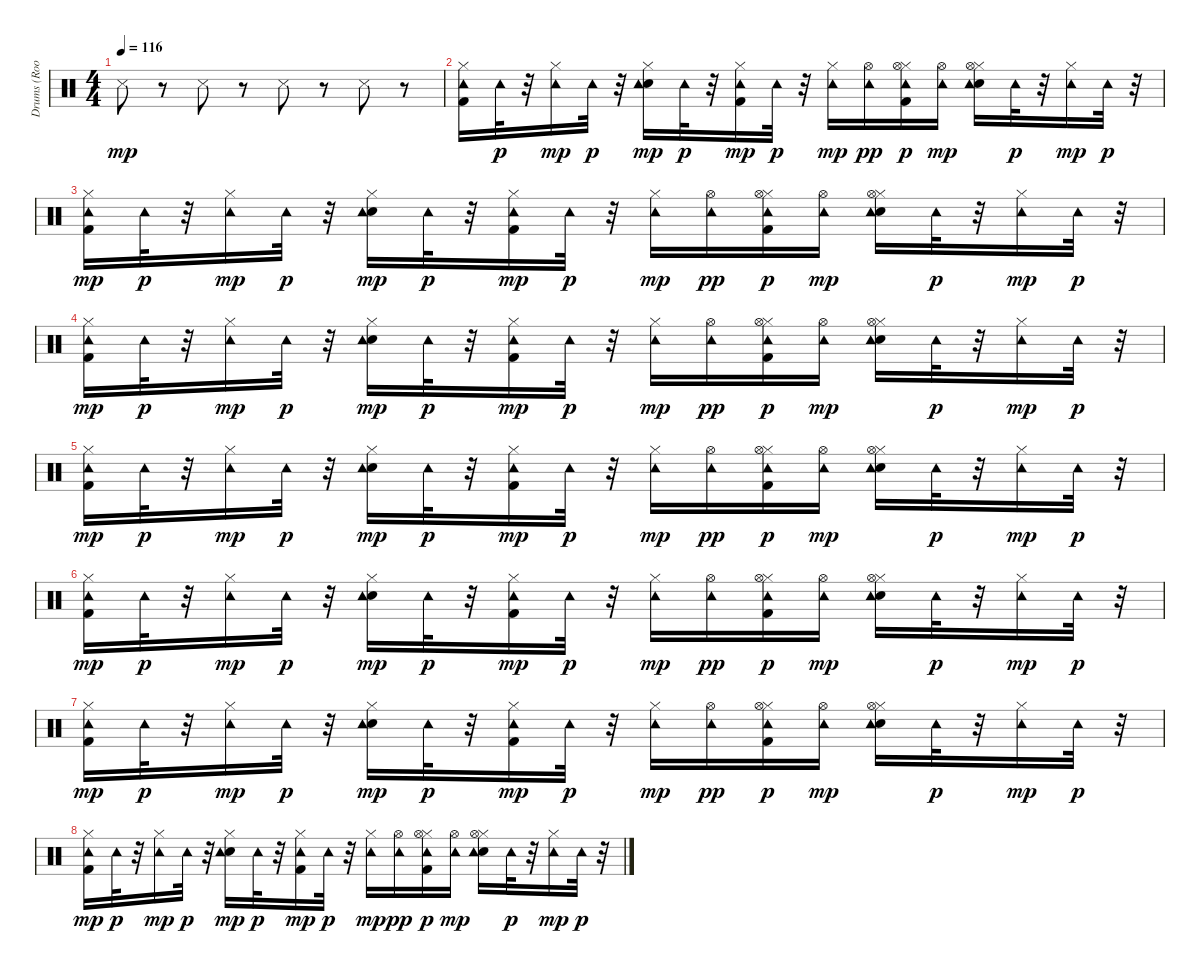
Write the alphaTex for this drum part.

\track ("Drums (Room Kit)    " "Drums (Roo") {instrument percussion}
\staff {score}
\articulation defaults
\ts (4 4)
\tempo 116
\clef neutral
\ks c "Snare (side stick) 3".8{dy mp}
r.8 "Snare (side stick) 3".8 r.8 "Snare (side stick) 3".8 r.8 "Snare (side stick) 3".8 r.8 |
("Kick (hit) 2" "Hi-Hat (closed)" "Tambourine (hit)").16 "Tambourine (hit)".32{dy p} r.32 ("Hi-Hat (closed)" "Tambourine (hit)").16{dy mp} "Tambourine (hit)".32{dy p} r.32 ("Snare (hit) 2" "Hi-Hat (closed)" "Tambourine (hit)").16{dy mp} "Tambourine (hit)".32{dy p} r.32 ("Kick (hit) 2" "Hi-Hat (closed)" "Tambourine (hit)").16{dy mp} "Tambourine (hit)".32{dy p} r.32 ("Hi-Hat (closed)" "Tambourine (hit)").16{dy mp} ("Tambourine (hit)" "Hi-Hat (open)").16{dy pp} ("Kick (hit) 2" "Hi-Hat (closed)" "Tambourine (hit)" "Hi-Hat (open)").16{dy p} ("Tambourine (hit)" "Hi-Hat (open)").16{dy mp} ("Snare (hit) 2" "Hi-Hat (closed)" "Tambourine (hit)" "Hi-Hat (open)").16 "Tambourine (hit)".32{dy p} r.32 ("Hi-Hat (closed)" "Tambourine (hit)").16{dy mp} "Tambourine (hit)".32{dy p} r.32 |
("Hi-Hat (closed)" "Kick (hit) 2" "Tambourine (hit)").16{dy mp} "Tambourine (hit)".32{dy p} r.32 ("Hi-Hat (closed)" "Tambourine (hit)").16{dy mp} "Tambourine (hit)".32{dy p} r.32 ("Hi-Hat (closed)" "Snare (hit) 2" "Tambourine (hit)").16{dy mp} "Tambourine (hit)".32{dy p} r.32 ("Hi-Hat (closed)" "Kick (hit) 2" "Tambourine (hit)").16{dy mp} "Tambourine (hit)".32{dy p} r.32 ("Hi-Hat (closed)" "Tambourine (hit)").16{dy mp} ("Tambourine (hit)" "Hi-Hat (open)").16{dy pp} ("Hi-Hat (closed)" "Kick (hit) 2" "Tambourine (hit)" "Hi-Hat (open)").16{dy p} ("Tambourine (hit)" "Hi-Hat (open)").16{dy mp} ("Hi-Hat (closed)" "Snare (hit) 2" "Tambourine (hit)" "Hi-Hat (open)").16 "Tambourine (hit)".32{dy p} r.32 ("Hi-Hat (closed)" "Tambourine (hit)").16{dy mp} "Tambourine (hit)".32{dy p} r.32 |
("Kick (hit) 2" "Hi-Hat (closed)" "Tambourine (hit)").16{dy mp} "Tambourine (hit)".32{dy p} r.32 ("Hi-Hat (closed)" "Tambourine (hit)").16{dy mp} "Tambourine (hit)".32{dy p} r.32 ("Snare (hit) 2" "Hi-Hat (closed)" "Tambourine (hit)").16{dy mp} "Tambourine (hit)".32{dy p} r.32 ("Kick (hit) 2" "Hi-Hat (closed)" "Tambourine (hit)").16{dy mp} "Tambourine (hit)".32{dy p} r.32 ("Hi-Hat (closed)" "Tambourine (hit)").16{dy mp} ("Tambourine (hit)" "Hi-Hat (open)").16{dy pp} ("Kick (hit) 2" "Hi-Hat (closed)" "Tambourine (hit)" "Hi-Hat (open)").16{dy p} ("Tambourine (hit)" "Hi-Hat (open)").16{dy mp} ("Snare (hit) 2" "Hi-Hat (closed)" "Tambourine (hit)" "Hi-Hat (open)").16 "Tambourine (hit)".32{dy p} r.32 ("Hi-Hat (closed)" "Tambourine (hit)").16{dy mp} "Tambourine (hit)".32{dy p} r.32 |
("Hi-Hat (closed)" "Kick (hit) 2" "Tambourine (hit)").16{dy mp} "Tambourine (hit)".32{dy p} r.32 ("Hi-Hat (closed)" "Tambourine (hit)").16{dy mp} "Tambourine (hit)".32{dy p} r.32 ("Hi-Hat (closed)" "Snare (hit) 2" "Tambourine (hit)").16{dy mp} "Tambourine (hit)".32{dy p} r.32 ("Hi-Hat (closed)" "Kick (hit) 2" "Tambourine (hit)").16{dy mp} "Tambourine (hit)".32{dy p} r.32 ("Hi-Hat (closed)" "Tambourine (hit)").16{dy mp} ("Tambourine (hit)" "Hi-Hat (open)").16{dy pp} ("Hi-Hat (closed)" "Kick (hit) 2" "Tambourine (hit)" "Hi-Hat (open)").16{dy p} ("Tambourine (hit)" "Hi-Hat (open)").16{dy mp} ("Hi-Hat (closed)" "Snare (hit) 2" "Tambourine (hit)" "Hi-Hat (open)").16 "Tambourine (hit)".32{dy p} r.32 ("Hi-Hat (closed)" "Tambourine (hit)").16{dy mp} "Tambourine (hit)".32{dy p} r.32 |
("Kick (hit) 2" "Hi-Hat (closed)" "Tambourine (hit)").16{dy mp} "Tambourine (hit)".32{dy p} r.32 ("Hi-Hat (closed)" "Tambourine (hit)").16{dy mp} "Tambourine (hit)".32{dy p} r.32 ("Snare (hit) 2" "Hi-Hat (closed)" "Tambourine (hit)").16{dy mp} "Tambourine (hit)".32{dy p} r.32 ("Kick (hit) 2" "Hi-Hat (closed)" "Tambourine (hit)").16{dy mp} "Tambourine (hit)".32{dy p} r.32 ("Hi-Hat (closed)" "Tambourine (hit)").16{dy mp} ("Tambourine (hit)" "Hi-Hat (open)").16{dy pp} ("Kick (hit) 2" "Hi-Hat (closed)" "Tambourine (hit)" "Hi-Hat (open)").16{dy p} ("Tambourine (hit)" "Hi-Hat (open)").16{dy mp} ("Snare (hit) 2" "Hi-Hat (closed)" "Tambourine (hit)" "Hi-Hat (open)").16 "Tambourine (hit)".32{dy p} r.32 ("Hi-Hat (closed)" "Tambourine (hit)").16{dy mp} "Tambourine (hit)".32{dy p} r.32 |
("Hi-Hat (closed)" "Kick (hit) 2" "Tambourine (hit)").16{dy mp} "Tambourine (hit)".32{dy p} r.32 ("Hi-Hat (closed)" "Tambourine (hit)").16{dy mp} "Tambourine (hit)".32{dy p} r.32 ("Hi-Hat (closed)" "Snare (hit) 2" "Tambourine (hit)").16{dy mp} "Tambourine (hit)".32{dy p} r.32 ("Hi-Hat (closed)" "Kick (hit) 2" "Tambourine (hit)").16{dy mp} "Tambourine (hit)".32{dy p} r.32 ("Hi-Hat (closed)" "Tambourine (hit)").16{dy mp} ("Tambourine (hit)" "Hi-Hat (open)").16{dy pp} ("Hi-Hat (closed)" "Kick (hit) 2" "Tambourine (hit)" "Hi-Hat (open)").16{dy p} ("Tambourine (hit)" "Hi-Hat (open)").16{dy mp} ("Hi-Hat (closed)" "Snare (hit) 2" "Tambourine (hit)" "Hi-Hat (open)").16 "Tambourine (hit)".32{dy p} r.32 ("Hi-Hat (closed)" "Tambourine (hit)").16{dy mp} "Tambourine (hit)".32{dy p} r.32 |
("Kick (hit) 2" "Hi-Hat (closed)" "Tambourine (hit)").16{dy mp} "Tambourine (hit)".32{dy p} r.32 ("Hi-Hat (closed)" "Tambourine (hit)").16{dy mp} "Tambourine (hit)".32{dy p} r.32 ("Snare (hit) 2" "Hi-Hat (closed)" "Tambourine (hit)").16{dy mp} "Tambourine (hit)".32{dy p} r.32 ("Kick (hit) 2" "Hi-Hat (closed)" "Tambourine (hit)").16{dy mp} "Tambourine (hit)".32{dy p} r.32 ("Hi-Hat (closed)" "Tambourine (hit)").16{dy mp} ("Tambourine (hit)" "Hi-Hat (open)").16{dy pp} ("Kick (hit) 2" "Hi-Hat (closed)" "Tambourine (hit)" "Hi-Hat (open)").16{dy p} ("Tambourine (hit)" "Hi-Hat (open)").16{dy mp} ("Snare (hit) 2" "Hi-Hat (closed)" "Tambourine (hit)" "Hi-Hat (open)").16 "Tambourine (hit)".32{dy p} r.32 ("Hi-Hat (closed)" "Tambourine (hit)").16{dy mp} "Tambourine (hit)".32{dy p} r.32
